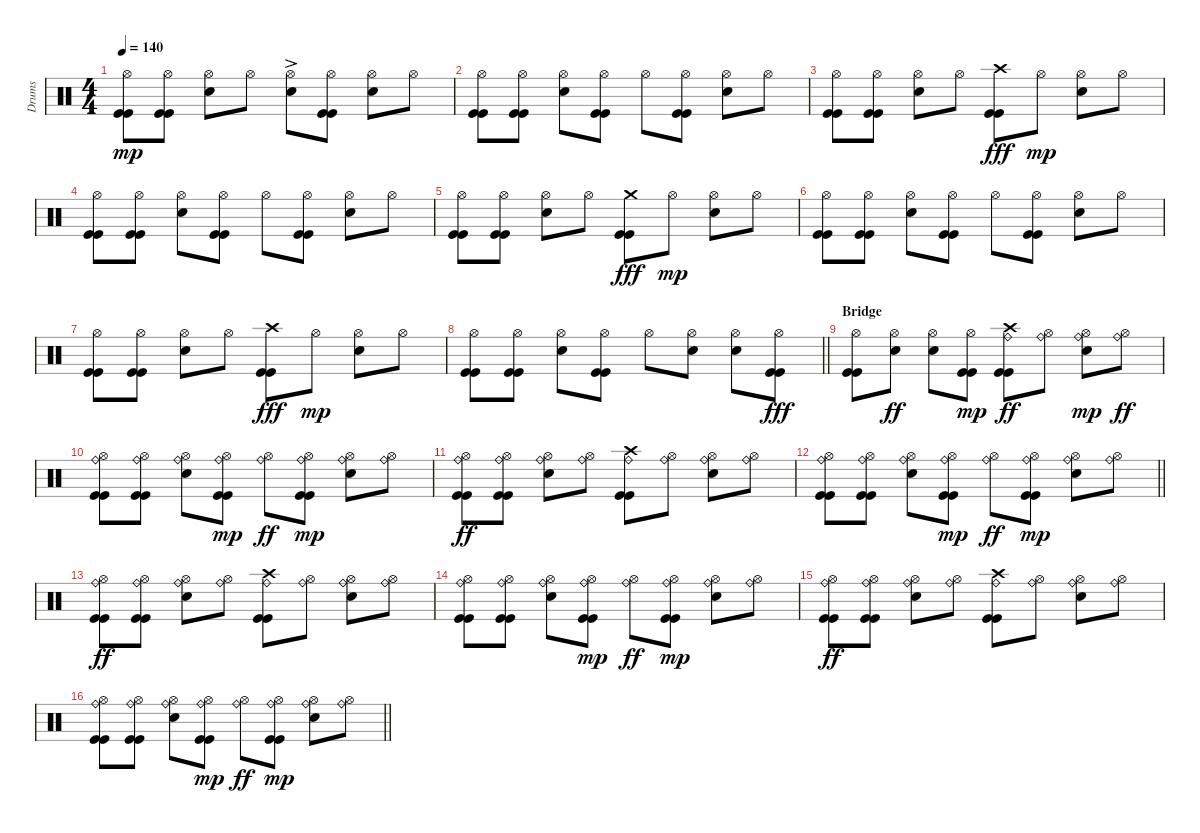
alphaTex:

\track ("Drums" "Drums") {instrument percussion}
\staff {score}
\articulation defaults
\ts (4 4)
\tempo 140
\clef neutral
\ks c
("Kick (hit)" "Kick (hit)" "Hi-Hat (open)").8{dy mp} ("Kick (hit)" "Kick (hit)" "Hi-Hat (open)").8 ("Electric Snare (hit)" "Hi-Hat (open)").8 "Hi-Hat (open)".8 ("Electric Snare (hit)"{ac} "Hi-Hat (open)").8 ("Kick (hit)" "Kick (hit)" "Hi-Hat (open)").8 ("Electric Snare (hit)" "Hi-Hat (open)").8 "Hi-Hat (open)".8 |
("Kick (hit)" "Kick (hit)" "Hi-Hat (open)").8 ("Kick (hit)" "Kick (hit)" "Hi-Hat (open)").8 ("Electric Snare (hit)" "Hi-Hat (open)").8 ("Kick (hit)" "Kick (hit)" "Hi-Hat (open)").8 "Hi-Hat (open)".8 ("Kick (hit)" "Kick (hit)" "Hi-Hat (open)").8 ("Electric Snare (hit)" "Hi-Hat (open)").8 "Hi-Hat (open)".8 |
("Kick (hit)" "Kick (hit)" "Hi-Hat (open)").8 ("Kick (hit)" "Kick (hit)" "Hi-Hat (open)").8 ("Electric Snare (hit)" "Hi-Hat (open)").8 "Hi-Hat (open)".8 ("Kick (hit)" "Crash high (hit)" "Kick (hit)").8{dy fff} "Hi-Hat (open)".8{dy mp} ("Electric Snare (hit)" "Hi-Hat (open)").8 "Hi-Hat (open)".8 |
("Kick (hit)" "Kick (hit)" "Hi-Hat (open)").8 ("Kick (hit)" "Kick (hit)" "Hi-Hat (open)").8 ("Electric Snare (hit)" "Hi-Hat (open)").8 ("Kick (hit)" "Kick (hit)" "Hi-Hat (open)").8 "Hi-Hat (open)".8 ("Kick (hit)" "Kick (hit)" "Hi-Hat (open)").8 ("Electric Snare (hit)" "Hi-Hat (open)").8 "Hi-Hat (open)".8 |
("Kick (hit)" "Kick (hit)" "Hi-Hat (open)").8 ("Kick (hit)" "Kick (hit)" "Hi-Hat (open)").8 ("Hi-Hat (open)" "Electric Snare (hit)").8 "Hi-Hat (open)".8 ("Kick (hit)" "Crash medium (hit)" "Kick (hit)").8{dy fff} "Hi-Hat (open)".8{dy mp} ("Electric Snare (hit)" "Hi-Hat (open)").8 "Hi-Hat (open)".8 |
("Kick (hit)" "Kick (hit)" "Hi-Hat (open)").8 ("Kick (hit)" "Kick (hit)" "Hi-Hat (open)").8 ("Electric Snare (hit)" "Hi-Hat (open)").8 ("Kick (hit)" "Kick (hit)" "Hi-Hat (open)").8 "Hi-Hat (open)".8 ("Kick (hit)" "Kick (hit)" "Hi-Hat (open)").8 ("Electric Snare (hit)" "Hi-Hat (open)").8 "Hi-Hat (open)".8 |
("Kick (hit)" "Kick (hit)" "Hi-Hat (open)").8 ("Kick (hit)" "Kick (hit)" "Hi-Hat (open)").8 ("Electric Snare (hit)" "Hi-Hat (open)").8 "Hi-Hat (open)".8 ("Kick (hit)" "Crash high (hit)" "Kick (hit)").8{dy fff} "Hi-Hat (open)".8{dy mp} ("Electric Snare (hit)" "Hi-Hat (open)").8 "Hi-Hat (open)".8 |
\barLineRight lightlight
("Kick (hit)" "Kick (hit)" "Hi-Hat (open)").8 ("Kick (hit)" "Kick (hit)" "Hi-Hat (open)").8 ("Electric Snare (hit)" "Hi-Hat (open)").8 ("Kick (hit)" "Kick (hit)" "Hi-Hat (open)").8 "Hi-Hat (open)".8 ("Electric Snare (hit)" "Hi-Hat (open)").8 ("Electric Snare (hit)" "Hi-Hat (open)").8 ("Hi-Hat (open)" "Kick (hit)" "Kick (hit)").8{dy fff} |
\section ("" "Bridge")
("Hi-Hat (open)" "Kick (hit)" "Kick (hit)").8 ("Hi-Hat (open)" "Electric Snare (hit)").8{dy ff} ("Hi-Hat (open)" "Electric Snare (hit)").8 ("Kick (hit)" "Kick (hit)" "Hi-Hat (open)").8{dy mp} ("Kick (hit)" "Kick (hit)" "Ride (bell)" "Crash high (hit)").8{dy ff} ("Hi-Hat (open)" "Ride (bell)").8 ("Electric Snare (hit)" "Ride (bell)" "Hi-Hat (open)").8{dy mp} ("Hi-Hat (open)" "Ride (bell)").8{dy ff} |
("Kick (hit)" "Kick (hit)" "Hi-Hat (open)" "Ride (bell)").8 ("Kick (hit)" "Kick (hit)" "Hi-Hat (open)" "Ride (bell)").8 ("Electric Snare (hit)" "Hi-Hat (open)" "Ride (bell)").8 ("Kick (hit)" "Ride (bell)" "Kick (hit)" "Hi-Hat (open)").8{dy mp} ("Hi-Hat (open)" "Ride (bell)").8{dy ff} ("Kick (hit)" "Ride (bell)" "Kick (hit)" "Hi-Hat (open)").8{dy mp} ("Electric Snare (hit)" "Ride (bell)" "Hi-Hat (open)").8 ("Ride (bell)" "Hi-Hat (open)").8 |
("Kick (hit)" "Kick (hit)" "Hi-Hat (open)" "Ride (bell)").8{dy ff} ("Kick (hit)" "Kick (hit)" "Hi-Hat (open)" "Ride (bell)").8 ("Electric Snare (hit)" "Hi-Hat (open)" "Ride (bell)").8 ("Hi-Hat (open)" "Ride (bell)").8 ("Kick (hit)" "Ride (bell)" "Kick (hit)" "Crash high (hit)").8 ("Hi-Hat (open)" "Ride (bell)").8 ("Electric Snare (hit)" "Hi-Hat (open)" "Ride (bell)").8 ("Hi-Hat (open)" "Ride (bell)").8 |
\barLineRight lightlight
("Kick (hit)" "Kick (hit)" "Hi-Hat (open)" "Ride (bell)").8 ("Kick (hit)" "Kick (hit)" "Hi-Hat (open)" "Ride (bell)").8 ("Electric Snare (hit)" "Hi-Hat (open)" "Ride (bell)").8 ("Kick (hit)" "Ride (bell)" "Kick (hit)" "Hi-Hat (open)").8{dy mp} ("Hi-Hat (open)" "Ride (bell)").8{dy ff} ("Kick (hit)" "Ride (bell)" "Kick (hit)" "Hi-Hat (open)").8{dy mp} ("Electric Snare (hit)" "Ride (bell)" "Hi-Hat (open)").8 ("Ride (bell)" "Hi-Hat (open)").8 |
("Kick (hit)" "Kick (hit)" "Hi-Hat (open)" "Ride (bell)").8{dy ff} ("Kick (hit)" "Kick (hit)" "Hi-Hat (open)" "Ride (bell)").8 ("Electric Snare (hit)" "Hi-Hat (open)" "Ride (bell)").8 ("Hi-Hat (open)" "Ride (bell)").8 ("Kick (hit)" "Ride (bell)" "Kick (hit)" "Crash high (hit)").8 ("Hi-Hat (open)" "Ride (bell)").8 ("Electric Snare (hit)" "Hi-Hat (open)" "Ride (bell)").8 ("Hi-Hat (open)" "Ride (bell)").8 |
("Kick (hit)" "Kick (hit)" "Hi-Hat (open)" "Ride (bell)").8 ("Kick (hit)" "Kick (hit)" "Hi-Hat (open)" "Ride (bell)").8 ("Electric Snare (hit)" "Hi-Hat (open)" "Ride (bell)").8 ("Kick (hit)" "Ride (bell)" "Kick (hit)" "Hi-Hat (open)").8{dy mp} ("Hi-Hat (open)" "Ride (bell)").8{dy ff} ("Kick (hit)" "Ride (bell)" "Kick (hit)" "Hi-Hat (open)").8{dy mp} ("Electric Snare (hit)" "Ride (bell)" "Hi-Hat (open)").8 ("Ride (bell)" "Hi-Hat (open)").8 |
("Kick (hit)" "Kick (hit)" "Hi-Hat (open)" "Ride (bell)").8{dy ff} ("Kick (hit)" "Kick (hit)" "Hi-Hat (open)" "Ride (bell)").8 ("Electric Snare (hit)" "Hi-Hat (open)" "Ride (bell)").8 ("Hi-Hat (open)" "Ride (bell)").8 ("Kick (hit)" "Ride (bell)" "Kick (hit)" "Crash high (hit)").8 ("Hi-Hat (open)" "Ride (bell)").8 ("Electric Snare (hit)" "Hi-Hat (open)" "Ride (bell)").8 ("Hi-Hat (open)" "Ride (bell)").8 |
\barLineRight lightlight
("Kick (hit)" "Kick (hit)" "Hi-Hat (open)" "Ride (bell)").8 ("Kick (hit)" "Kick (hit)" "Hi-Hat (open)" "Ride (bell)").8 ("Electric Snare (hit)" "Hi-Hat (open)" "Ride (bell)").8 ("Kick (hit)" "Ride (bell)" "Kick (hit)" "Hi-Hat (open)").8{dy mp} ("Hi-Hat (open)" "Ride (bell)").8{dy ff} ("Kick (hit)" "Ride (bell)" "Kick (hit)" "Hi-Hat (open)").8{dy mp} ("Electric Snare (hit)" "Ride (bell)" "Hi-Hat (open)").8 ("Ride (bell)" "Hi-Hat (open)").8
